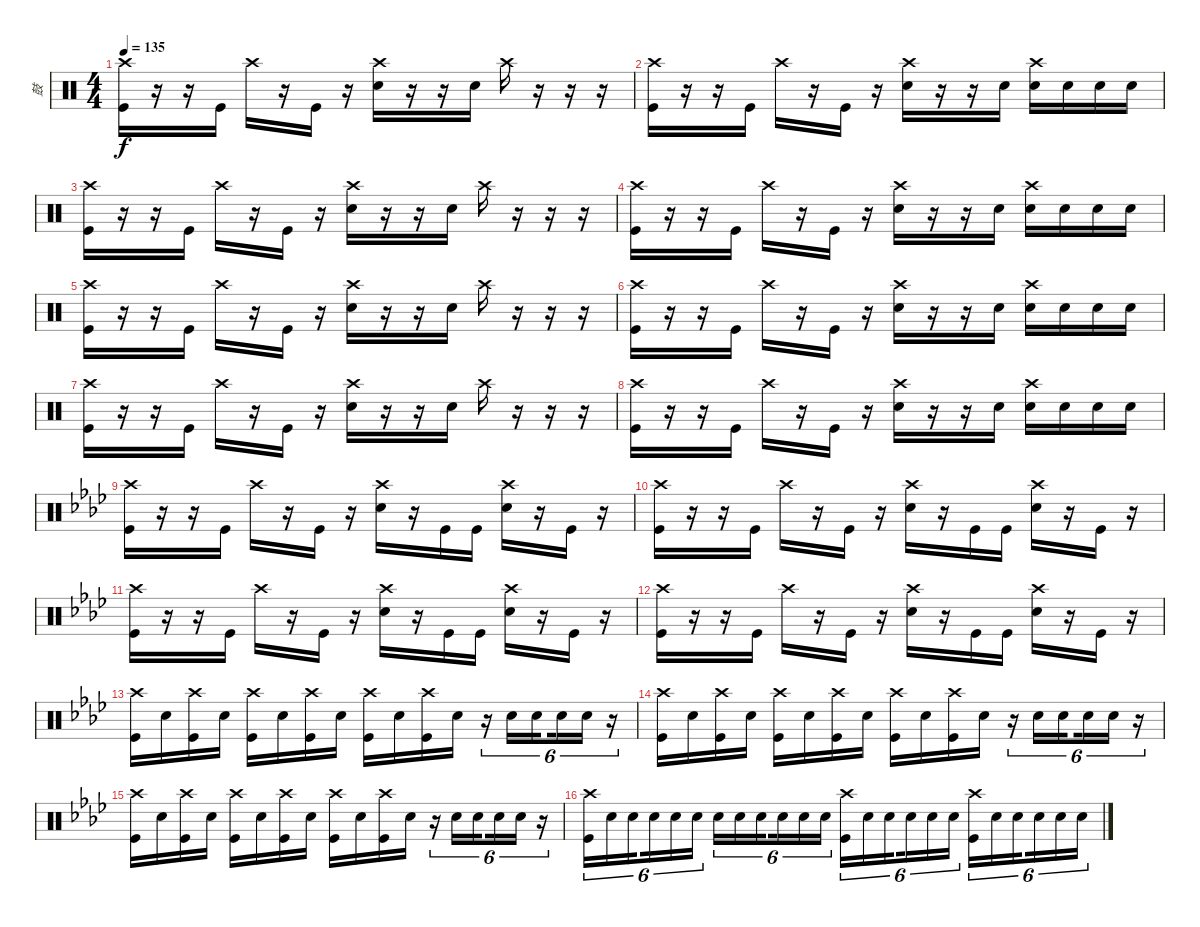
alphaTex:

\track ("鼓" "鼓") {instrument percussion}
\staff {score}
\articulation defaults
\ts (4 4)
\tempo 135
\clef neutral
\ks c
("Crash high (hit)" "Kick (hit)").16{dy f} r.16 r.16 "Kick (hit)".16 "Crash high (hit)".16 r.16 "Kick (hit)".16 r.16 ("Crash high (hit)" "Snare (hit) 2").16 r.16 r.16 "Snare (hit) 2".16 "Crash high (hit)".16 r.16 r.16 r.16 |
("Crash high (hit)" "Kick (hit)").16 r.16 r.16 "Kick (hit)".16 "Crash high (hit)".16 r.16 "Kick (hit)".16 r.16 ("Crash high (hit)" "Snare (hit) 2").16 r.16 r.16 "Snare (hit) 2".16 ("Crash high (hit)" "Snare (hit) 2").16 "Snare (hit) 2".16 "Snare (hit) 2".16 "Snare (hit) 2".16 |
("Crash high (hit)" "Kick (hit)").16 r.16 r.16 "Kick (hit)".16 "Crash high (hit)".16 r.16 "Kick (hit)".16 r.16 ("Crash high (hit)" "Snare (hit) 2").16 r.16 r.16 "Snare (hit) 2".16 "Crash high (hit)".16 r.16 r.16 r.16 |
("Crash high (hit)" "Kick (hit)").16 r.16 r.16 "Kick (hit)".16 "Crash high (hit)".16 r.16 "Kick (hit)".16 r.16 ("Crash high (hit)" "Snare (hit) 2").16 r.16 r.16 "Snare (hit) 2".16 ("Crash high (hit)" "Snare (hit) 2").16 "Snare (hit) 2".16 "Snare (hit) 2".16 "Snare (hit) 2".16 |
("Crash high (hit)" "Kick (hit)").16 r.16 r.16 "Kick (hit)".16 "Crash high (hit)".16 r.16 "Kick (hit)".16 r.16 ("Crash high (hit)" "Snare (hit) 2").16 r.16 r.16 "Snare (hit) 2".16 "Crash high (hit)".16 r.16 r.16 r.16 |
("Crash high (hit)" "Kick (hit)").16 r.16 r.16 "Kick (hit)".16 "Crash high (hit)".16 r.16 "Kick (hit)".16 r.16 ("Crash high (hit)" "Snare (hit) 2").16 r.16 r.16 "Snare (hit) 2".16 ("Crash high (hit)" "Snare (hit) 2").16 "Snare (hit) 2".16 "Snare (hit) 2".16 "Snare (hit) 2".16 |
("Crash high (hit)" "Kick (hit)").16 r.16 r.16 "Kick (hit)".16 "Crash high (hit)".16 r.16 "Kick (hit)".16 r.16 ("Crash high (hit)" "Snare (hit) 2").16 r.16 r.16 "Snare (hit) 2".16 "Crash high (hit)".16 r.16 r.16 r.16 |
("Crash high (hit)" "Kick (hit)").16 r.16 r.16 "Kick (hit)".16 "Crash high (hit)".16 r.16 "Kick (hit)".16 r.16 ("Crash high (hit)" "Snare (hit) 2").16 r.16 r.16 "Snare (hit) 2".16 ("Crash high (hit)" "Snare (hit) 2").16 "Snare (hit) 2".16 "Snare (hit) 2".16 "Snare (hit) 2".16 |
\ks ab
("Crash high (hit)" "Kick (hit)").16 r.16 r.16 "Kick (hit)".16 "Crash high (hit)".16 r.16 "Kick (hit)".16 r.16 ("Crash high (hit)" "Snare (hit) 2").16 r.16 "Kick (hit)".16 "Kick (hit)".16 ("Crash high (hit)" "Snare (hit) 2").16 r.16 "Kick (hit)".16 r.16 |
("Crash high (hit)" "Kick (hit)").16 r.16 r.16 "Kick (hit)".16 "Crash high (hit)".16 r.16 "Kick (hit)".16 r.16 ("Crash high (hit)" "Snare (hit) 2").16 r.16 "Kick (hit)".16 "Kick (hit)".16 ("Crash high (hit)" "Snare (hit) 2").16 r.16 "Kick (hit)".16 r.16 |
("Crash high (hit)" "Kick (hit)").16 r.16 r.16 "Kick (hit)".16 "Crash high (hit)".16 r.16 "Kick (hit)".16 r.16 ("Crash high (hit)" "Snare (hit) 2").16 r.16 "Kick (hit)".16 "Kick (hit)".16 ("Crash high (hit)" "Snare (hit) 2").16 r.16 "Kick (hit)".16 r.16 |
("Crash high (hit)" "Kick (hit)").16 r.16 r.16 "Kick (hit)".16 "Crash high (hit)".16 r.16 "Kick (hit)".16 r.16 ("Crash high (hit)" "Snare (hit) 2").16 r.16 "Kick (hit)".16 "Kick (hit)".16 ("Crash high (hit)" "Snare (hit) 2").16 r.16 "Kick (hit)".16 r.16 |
("Crash high (hit)" "Kick (hit)").16 "Snare (hit) 2".16 ("Crash high (hit)" "Kick (hit)").16 "Snare (hit) 2".16 ("Crash high (hit)" "Kick (hit)").16 "Snare (hit) 2".16 ("Crash high (hit)" "Kick (hit)").16 "Snare (hit) 2".16 ("Crash high (hit)" "Kick (hit)").16 "Snare (hit) 2".16 ("Crash high (hit)" "Kick (hit)").16 "Snare (hit) 2".16 r.16{tu (6 4)} "Snare (hit) 2".16{tu (6 4)} "Snare (hit) 2".16{tu (6 4) beam splitsecondary} "Snare (hit) 2".16{tu (6 4)} "Snare (hit) 2".16{tu (6 4)} r.16{tu (6 4)} |
("Crash high (hit)" "Kick (hit)").16 "Snare (hit) 2".16 ("Crash high (hit)" "Kick (hit)").16 "Snare (hit) 2".16 ("Crash high (hit)" "Kick (hit)").16 "Snare (hit) 2".16 ("Crash high (hit)" "Kick (hit)").16 "Snare (hit) 2".16 ("Crash high (hit)" "Kick (hit)").16 "Snare (hit) 2".16 ("Crash high (hit)" "Kick (hit)").16 "Snare (hit) 2".16 r.16{tu (6 4)} "Snare (hit) 2".16{tu (6 4)} "Snare (hit) 2".16{tu (6 4) beam splitsecondary} "Snare (hit) 2".16{tu (6 4)} "Snare (hit) 2".16{tu (6 4)} r.16{tu (6 4)} |
("Crash high (hit)" "Kick (hit)").16 "Snare (hit) 2".16 ("Crash high (hit)" "Kick (hit)").16 "Snare (hit) 2".16 ("Crash high (hit)" "Kick (hit)").16 "Snare (hit) 2".16 ("Crash high (hit)" "Kick (hit)").16 "Snare (hit) 2".16 ("Crash high (hit)" "Kick (hit)").16 "Snare (hit) 2".16 ("Crash high (hit)" "Kick (hit)").16 "Snare (hit) 2".16 r.16{tu (6 4)} "Snare (hit) 2".16{tu (6 4)} "Snare (hit) 2".16{tu (6 4) beam splitsecondary} "Snare (hit) 2".16{tu (6 4)} "Snare (hit) 2".16{tu (6 4)} r.16{tu (6 4)} |
("Crash high (hit)" "Kick (hit)").16{tu (6 4)} "Snare (hit) 2".16{tu (6 4)} "Snare (hit) 2".16{tu (6 4) beam splitsecondary} "Snare (hit) 2".16{tu (6 4)} "Snare (hit) 2".16{tu (6 4)} "Snare (hit) 2".16{tu (6 4)} "Snare (hit) 2".16{tu (6 4)} "Snare (hit) 2".16{tu (6 4)} "Snare (hit) 2".16{tu (6 4) beam splitsecondary} "Snare (hit) 2".16{tu (6 4)} "Snare (hit) 2".16{tu (6 4)} "Snare (hit) 2".16{tu (6 4)} ("Crash high (hit)" "Kick (hit)").16{tu (6 4)} "Snare (hit) 2".16{tu (6 4)} "Snare (hit) 2".16{tu (6 4) beam splitsecondary} "Snare (hit) 2".16{tu (6 4)} "Snare (hit) 2".16{tu (6 4)} "Snare (hit) 2".16{tu (6 4)} ("Crash high (hit)" "Kick (hit)").16{tu (6 4)} "Snare (hit) 2".16{tu (6 4)} "Snare (hit) 2".16{tu (6 4) beam splitsecondary} "Snare (hit) 2".16{tu (6 4)} "Snare (hit) 2".16{tu (6 4)} "Snare (hit) 2".16{tu (6 4)}
